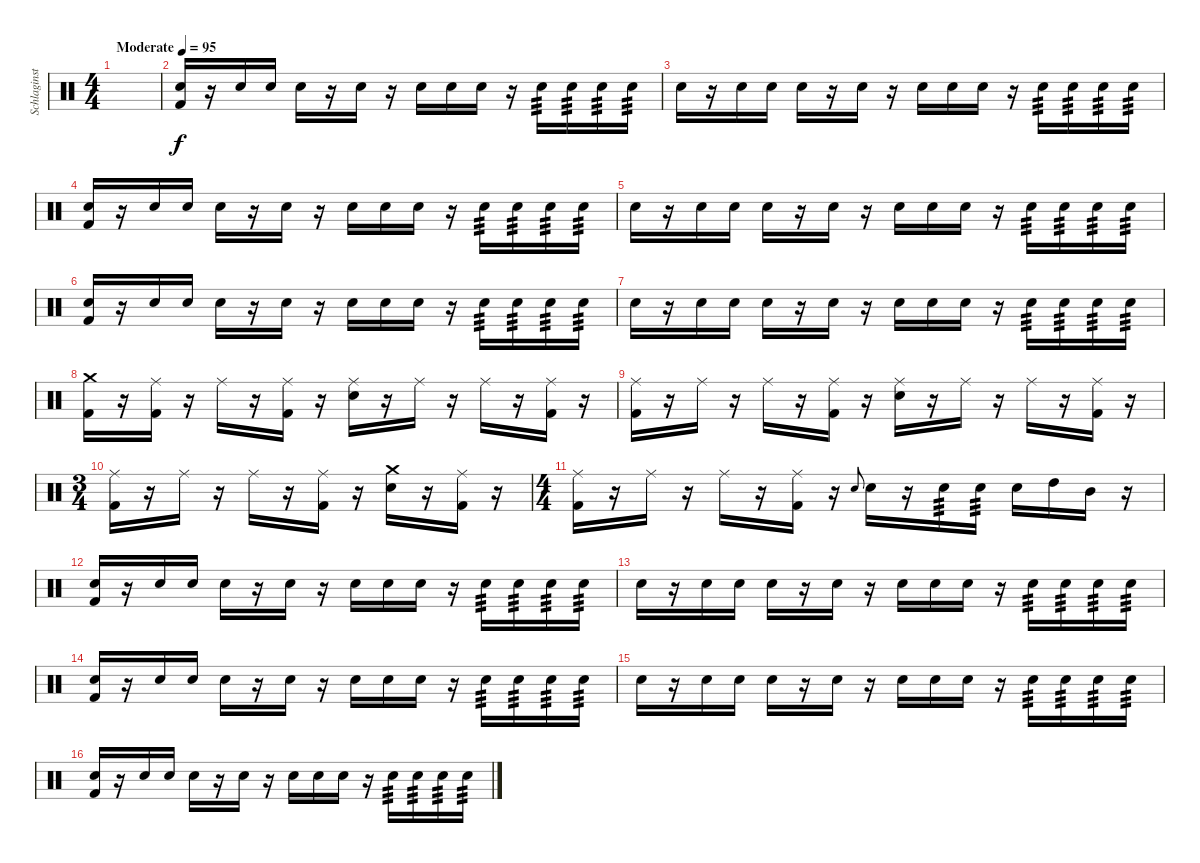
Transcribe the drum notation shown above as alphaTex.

\track ("Schlaginstrumente - Auswahl" "Schlaginst") {instrument percussion}
\staff {score}
\articulation defaults
\ts (4 4)
\tempo (95 "Moderate")
\clef neutral
\ks c
|
("Electric Snare (hit)" "Kick (hit) 2").16 r.16 "Electric Snare (hit)".16 "Electric Snare (hit)".16 "Electric Snare (hit)".16 r.16 "Electric Snare (hit)".16 r.16 "Electric Snare (hit)".16 "Electric Snare (hit)".16 "Electric Snare (hit)".16 r.16 "Electric Snare (hit)".16{tp 3} "Electric Snare (hit)".16{tp 3} "Electric Snare (hit)".16{tp 3} "Electric Snare (hit)".16{tp 3} |
"Electric Snare (hit)".16 r.16 "Electric Snare (hit)".16 "Electric Snare (hit)".16 "Electric Snare (hit)".16 r.16 "Electric Snare (hit)".16 r.16 "Electric Snare (hit)".16 "Electric Snare (hit)".16 "Electric Snare (hit)".16 r.16 "Electric Snare (hit)".16{tp 3} "Electric Snare (hit)".16{tp 3} "Electric Snare (hit)".16{tp 3} "Electric Snare (hit)".16{tp 3} |
("Electric Snare (hit)" "Kick (hit) 2").16 r.16 "Electric Snare (hit)".16 "Electric Snare (hit)".16 "Electric Snare (hit)".16 r.16 "Electric Snare (hit)".16 r.16 "Electric Snare (hit)".16 "Electric Snare (hit)".16 "Electric Snare (hit)".16 r.16 "Electric Snare (hit)".16{tp 3} "Electric Snare (hit)".16{tp 3} "Electric Snare (hit)".16{tp 3} "Electric Snare (hit)".16{tp 3} |
"Electric Snare (hit)".16 r.16 "Electric Snare (hit)".16 "Electric Snare (hit)".16 "Electric Snare (hit)".16 r.16 "Electric Snare (hit)".16 r.16 "Electric Snare (hit)".16 "Electric Snare (hit)".16 "Electric Snare (hit)".16 r.16 "Electric Snare (hit)".16{tp 3} "Electric Snare (hit)".16{tp 3} "Electric Snare (hit)".16{tp 3} "Electric Snare (hit)".16{tp 3} |
("Electric Snare (hit)" "Kick (hit) 2").16 r.16 "Electric Snare (hit)".16 "Electric Snare (hit)".16 "Electric Snare (hit)".16 r.16 "Electric Snare (hit)".16 r.16 "Electric Snare (hit)".16 "Electric Snare (hit)".16 "Electric Snare (hit)".16 r.16 "Electric Snare (hit)".16{tp 3} "Electric Snare (hit)".16{tp 3} "Electric Snare (hit)".16{tp 3} "Electric Snare (hit)".16{tp 3} |
"Electric Snare (hit)".16 r.16 "Electric Snare (hit)".16 "Electric Snare (hit)".16 "Electric Snare (hit)".16 r.16 "Electric Snare (hit)".16 r.16 "Electric Snare (hit)".16 "Electric Snare (hit)".16 "Electric Snare (hit)".16 r.16 "Electric Snare (hit)".16{tp 3} "Electric Snare (hit)".16{tp 3} "Electric Snare (hit)".16{tp 3} "Electric Snare (hit)".16{tp 3} |
("Crash medium (hit)" "Kick (hit) 2").16 r.16 ("Ride (middle)" "Kick (hit) 2").16 r.16 "Ride (middle)".16 r.16 ("Ride (middle)" "Kick (hit) 2").16 r.16 ("Ride (middle)" "Electric Snare (hit)").16 r.16 "Ride (middle)".16 r.16 "Ride (middle)".16 r.16 ("Ride (middle)" "Kick (hit) 2").16 r.16 |
("Ride (middle)" "Kick (hit) 2").16 r.16 "Ride (middle)".16 r.16 "Ride (middle)".16 r.16 ("Ride (middle)" "Kick (hit) 2").16 r.16 ("Ride (middle)" "Electric Snare (hit)").16 r.16 "Ride (middle)".16 r.16 "Ride (middle)".16 r.16 ("Ride (middle)" "Kick (hit) 2").16 r.16 |
\ts (3 4)
("Ride (middle)" "Kick (hit) 2").16 r.16 "Ride (middle)".16 r.16 "Ride (middle)".16 r.16 ("Ride (middle)" "Kick (hit) 2").16 r.16 ("Crash medium (hit)" "Electric Snare (hit)").16 r.16 ("Ride (middle)" "Kick (hit) 2").16 r.16 |
\ts (4 4)
("Ride (middle)" "Kick (hit) 2").16 r.16 "Ride (middle)".16 r.16 "Ride (middle)".16 r.16 ("Ride (middle)" "Kick (hit) 2").16 r.16 "Electric Snare (hit)".8{gr onbeat} "Electric Snare (hit)".16 r.16 "Electric Snare (hit)".16{tp 3} "Electric Snare (hit)".16{tp 3} "Electric Snare (hit)".16 "High Tom (hit)".16 "Mid Tom (hit)".16 r.16 |
("Electric Snare (hit)" "Kick (hit) 2").16 r.16 "Electric Snare (hit)".16 "Electric Snare (hit)".16 "Electric Snare (hit)".16 r.16 "Electric Snare (hit)".16 r.16 "Electric Snare (hit)".16 "Electric Snare (hit)".16 "Electric Snare (hit)".16 r.16 "Electric Snare (hit)".16{tp 3} "Electric Snare (hit)".16{tp 3} "Electric Snare (hit)".16{tp 3} "Electric Snare (hit)".16{tp 3} |
"Electric Snare (hit)".16 r.16 "Electric Snare (hit)".16 "Electric Snare (hit)".16 "Electric Snare (hit)".16 r.16 "Electric Snare (hit)".16 r.16 "Electric Snare (hit)".16 "Electric Snare (hit)".16 "Electric Snare (hit)".16 r.16 "Electric Snare (hit)".16{tp 3} "Electric Snare (hit)".16{tp 3} "Electric Snare (hit)".16{tp 3} "Electric Snare (hit)".16{tp 3} |
("Electric Snare (hit)" "Kick (hit) 2").16 r.16 "Electric Snare (hit)".16 "Electric Snare (hit)".16 "Electric Snare (hit)".16 r.16 "Electric Snare (hit)".16 r.16 "Electric Snare (hit)".16 "Electric Snare (hit)".16 "Electric Snare (hit)".16 r.16 "Electric Snare (hit)".16{tp 3} "Electric Snare (hit)".16{tp 3} "Electric Snare (hit)".16{tp 3} "Electric Snare (hit)".16{tp 3} |
"Electric Snare (hit)".16 r.16 "Electric Snare (hit)".16 "Electric Snare (hit)".16 "Electric Snare (hit)".16 r.16 "Electric Snare (hit)".16 r.16 "Electric Snare (hit)".16 "Electric Snare (hit)".16 "Electric Snare (hit)".16 r.16 "Electric Snare (hit)".16{tp 3} "Electric Snare (hit)".16{tp 3} "Electric Snare (hit)".16{tp 3} "Electric Snare (hit)".16{tp 3} |
("Electric Snare (hit)" "Kick (hit) 2").16 r.16 "Electric Snare (hit)".16 "Electric Snare (hit)".16 "Electric Snare (hit)".16 r.16 "Electric Snare (hit)".16 r.16 "Electric Snare (hit)".16 "Electric Snare (hit)".16 "Electric Snare (hit)".16 r.16 "Electric Snare (hit)".16{tp 3} "Electric Snare (hit)".16{tp 3} "Electric Snare (hit)".16{tp 3} "Electric Snare (hit)".16{tp 3}
